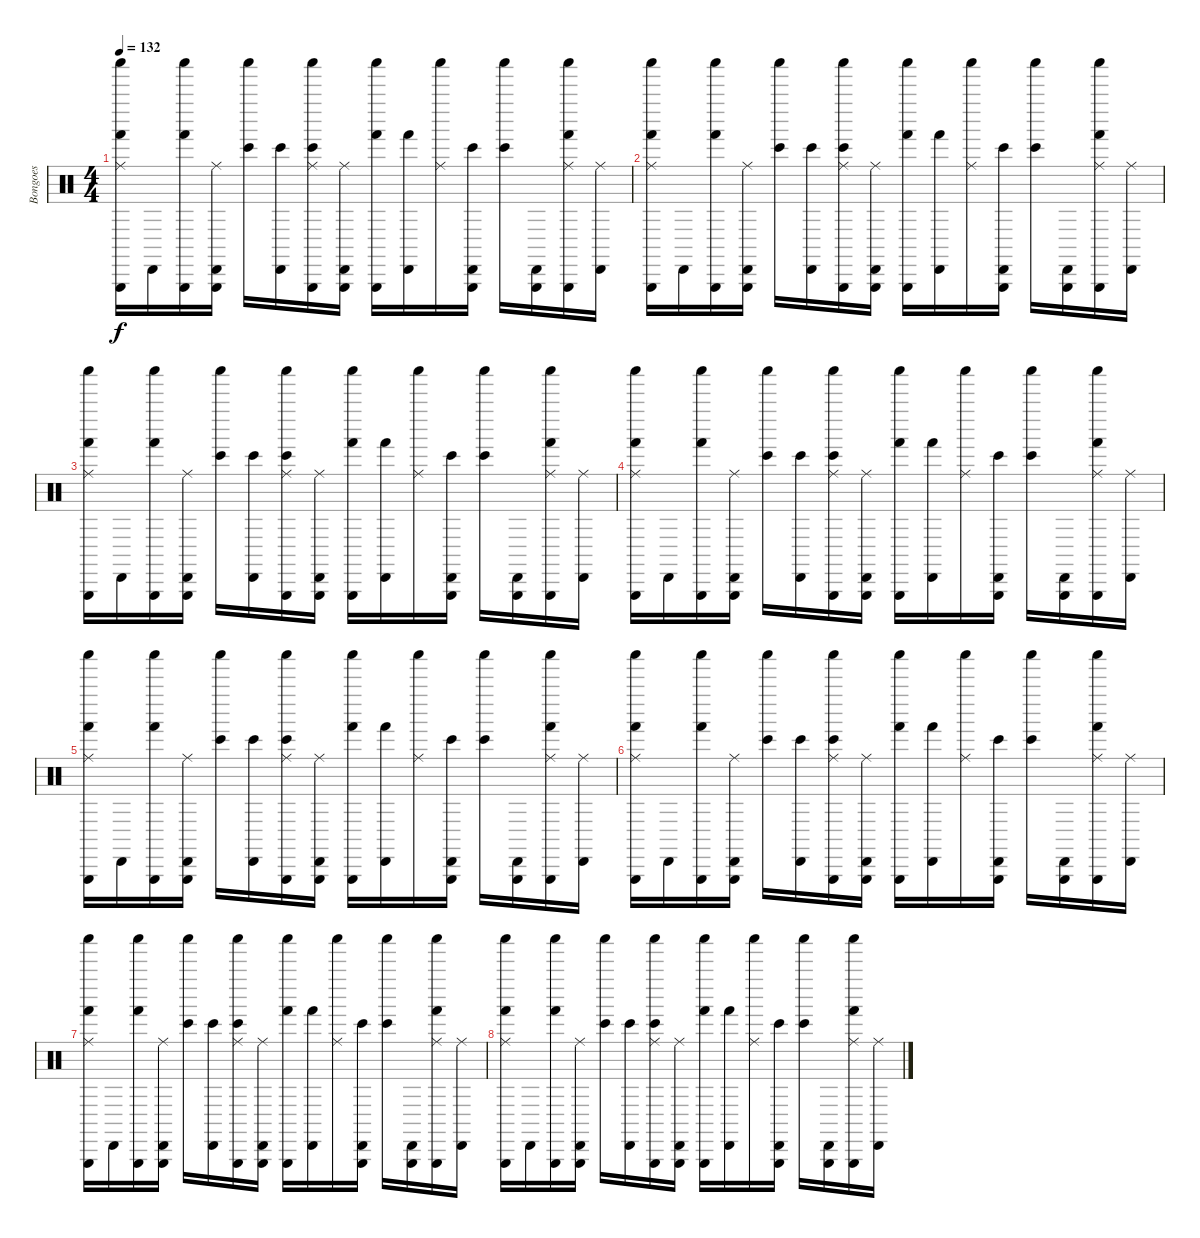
\track ("Bongoes" "Bongoes") {instrument percussion}
\staff {score}
\articulation defaults
\ts (4 4)
\tempo 132
\clef neutral
\ks c
("Shaker (hit)" "Triangle (hit)" "Hand (hit)" "Ride (middle)").16{dy f} "Cabasa (hit)".16 ("Shaker (hit)" "Triangle (hit)" "Hand (hit)").16 ("Cabasa (hit)" "Triangle (hit)" "Ride (middle)").16 ("Shaker (hit)" "Bongo High (hit)").16 ("Cabasa (hit)" "Bongo High (hit)").16 ("Shaker (hit)" "Triangle (hit)" "Bongo High (hit)" "Ride (middle)").16 ("Cabasa (hit)" "Triangle (hit)" "Ride (middle)").16 ("Shaker (hit)" "Triangle (hit)" "Hand (hit)").16 ("Cabasa (hit)" "Hand (hit)").16 ("Shaker (hit)" "Ride (middle)").16 ("Cabasa (hit)" "Triangle (hit)" "Bongo High (hit)").16 ("Shaker (hit)" "Bongo High (hit)").16 ("Cabasa (hit)" "Triangle (hit)").16 ("Shaker (hit)" "Triangle (hit)" "Hand (hit)" "Ride (middle)").16 ("Cabasa (hit)" "Ride (middle)").16 |
("Shaker (hit)" "Triangle (hit)" "Hand (hit)" "Ride (middle)").16 "Cabasa (hit)".16 ("Shaker (hit)" "Triangle (hit)" "Hand (hit)").16 ("Cabasa (hit)" "Triangle (hit)" "Ride (middle)").16 ("Shaker (hit)" "Bongo High (hit)").16 ("Cabasa (hit)" "Bongo High (hit)").16 ("Shaker (hit)" "Triangle (hit)" "Bongo High (hit)" "Ride (middle)").16 ("Cabasa (hit)" "Triangle (hit)" "Ride (middle)").16 ("Shaker (hit)" "Triangle (hit)" "Hand (hit)").16 ("Cabasa (hit)" "Hand (hit)").16 ("Shaker (hit)" "Ride (middle)").16 ("Cabasa (hit)" "Triangle (hit)" "Bongo High (hit)").16 ("Shaker (hit)" "Bongo High (hit)").16 ("Cabasa (hit)" "Triangle (hit)").16 ("Shaker (hit)" "Triangle (hit)" "Hand (hit)" "Ride (middle)").16 ("Cabasa (hit)" "Ride (middle)").16 |
("Shaker (hit)" "Triangle (hit)" "Hand (hit)" "Ride (middle)").16 "Cabasa (hit)".16 ("Shaker (hit)" "Triangle (hit)" "Hand (hit)").16 ("Cabasa (hit)" "Triangle (hit)" "Ride (middle)").16 ("Shaker (hit)" "Bongo High (hit)").16 ("Cabasa (hit)" "Bongo High (hit)").16 ("Shaker (hit)" "Triangle (hit)" "Bongo High (hit)" "Ride (middle)").16 ("Cabasa (hit)" "Triangle (hit)" "Ride (middle)").16 ("Shaker (hit)" "Triangle (hit)" "Hand (hit)").16 ("Cabasa (hit)" "Hand (hit)").16 ("Shaker (hit)" "Ride (middle)").16 ("Cabasa (hit)" "Triangle (hit)" "Bongo High (hit)").16 ("Shaker (hit)" "Bongo High (hit)").16 ("Cabasa (hit)" "Triangle (hit)").16 ("Shaker (hit)" "Triangle (hit)" "Hand (hit)" "Ride (middle)").16 ("Cabasa (hit)" "Ride (middle)").16 |
("Shaker (hit)" "Triangle (hit)" "Hand (hit)" "Ride (middle)").16 "Cabasa (hit)".16 ("Shaker (hit)" "Triangle (hit)" "Hand (hit)").16 ("Cabasa (hit)" "Triangle (hit)" "Ride (middle)").16 ("Shaker (hit)" "Bongo High (hit)").16 ("Cabasa (hit)" "Bongo High (hit)").16 ("Shaker (hit)" "Triangle (hit)" "Bongo High (hit)" "Ride (middle)").16 ("Cabasa (hit)" "Triangle (hit)" "Ride (middle)").16 ("Shaker (hit)" "Triangle (hit)" "Hand (hit)").16 ("Cabasa (hit)" "Hand (hit)").16 ("Shaker (hit)" "Ride (middle)").16 ("Cabasa (hit)" "Triangle (hit)" "Bongo High (hit)").16 ("Shaker (hit)" "Bongo High (hit)").16 ("Cabasa (hit)" "Triangle (hit)").16 ("Shaker (hit)" "Triangle (hit)" "Hand (hit)" "Ride (middle)").16 ("Cabasa (hit)" "Ride (middle)").16 |
("Shaker (hit)" "Triangle (hit)" "Hand (hit)" "Ride (middle)").16 "Cabasa (hit)".16 ("Shaker (hit)" "Triangle (hit)" "Hand (hit)").16 ("Cabasa (hit)" "Triangle (hit)" "Ride (middle)").16 ("Shaker (hit)" "Bongo High (hit)").16 ("Cabasa (hit)" "Bongo High (hit)").16 ("Shaker (hit)" "Triangle (hit)" "Bongo High (hit)" "Ride (middle)").16 ("Cabasa (hit)" "Triangle (hit)" "Ride (middle)").16 ("Shaker (hit)" "Triangle (hit)" "Hand (hit)").16 ("Cabasa (hit)" "Hand (hit)").16 ("Shaker (hit)" "Ride (middle)").16 ("Cabasa (hit)" "Triangle (hit)" "Bongo High (hit)").16 ("Shaker (hit)" "Bongo High (hit)").16 ("Cabasa (hit)" "Triangle (hit)").16 ("Shaker (hit)" "Triangle (hit)" "Hand (hit)" "Ride (middle)").16 ("Cabasa (hit)" "Ride (middle)").16 |
("Shaker (hit)" "Triangle (hit)" "Hand (hit)" "Ride (middle)").16 "Cabasa (hit)".16 ("Shaker (hit)" "Triangle (hit)" "Hand (hit)").16 ("Cabasa (hit)" "Triangle (hit)" "Ride (middle)").16 ("Shaker (hit)" "Bongo High (hit)").16 ("Cabasa (hit)" "Bongo High (hit)").16 ("Shaker (hit)" "Triangle (hit)" "Bongo High (hit)" "Ride (middle)").16 ("Cabasa (hit)" "Triangle (hit)" "Ride (middle)").16 ("Shaker (hit)" "Triangle (hit)" "Hand (hit)").16 ("Cabasa (hit)" "Hand (hit)").16 ("Shaker (hit)" "Ride (middle)").16 ("Cabasa (hit)" "Triangle (hit)" "Bongo High (hit)").16 ("Shaker (hit)" "Bongo High (hit)").16 ("Cabasa (hit)" "Triangle (hit)").16 ("Shaker (hit)" "Triangle (hit)" "Hand (hit)" "Ride (middle)").16 ("Cabasa (hit)" "Ride (middle)").16 |
("Shaker (hit)" "Triangle (hit)" "Hand (hit)" "Ride (middle)").16 "Cabasa (hit)".16 ("Shaker (hit)" "Triangle (hit)" "Hand (hit)").16 ("Cabasa (hit)" "Triangle (hit)" "Ride (middle)").16 ("Shaker (hit)" "Bongo High (hit)").16 ("Cabasa (hit)" "Bongo High (hit)").16 ("Shaker (hit)" "Triangle (hit)" "Bongo High (hit)" "Ride (middle)").16 ("Cabasa (hit)" "Triangle (hit)" "Ride (middle)").16 ("Shaker (hit)" "Triangle (hit)" "Hand (hit)").16 ("Cabasa (hit)" "Hand (hit)").16 ("Shaker (hit)" "Ride (middle)").16 ("Cabasa (hit)" "Triangle (hit)" "Bongo High (hit)").16 ("Shaker (hit)" "Bongo High (hit)").16 ("Cabasa (hit)" "Triangle (hit)").16 ("Shaker (hit)" "Triangle (hit)" "Hand (hit)" "Ride (middle)").16 ("Cabasa (hit)" "Ride (middle)").16 |
("Shaker (hit)" "Triangle (hit)" "Hand (hit)" "Ride (middle)").16 "Cabasa (hit)".16 ("Shaker (hit)" "Triangle (hit)" "Hand (hit)").16 ("Cabasa (hit)" "Triangle (hit)" "Ride (middle)").16 ("Shaker (hit)" "Bongo High (hit)").16 ("Cabasa (hit)" "Bongo High (hit)").16 ("Shaker (hit)" "Triangle (hit)" "Bongo High (hit)" "Ride (middle)").16 ("Cabasa (hit)" "Triangle (hit)" "Ride (middle)").16 ("Shaker (hit)" "Triangle (hit)" "Hand (hit)").16 ("Cabasa (hit)" "Hand (hit)").16 ("Shaker (hit)" "Ride (middle)").16 ("Cabasa (hit)" "Triangle (hit)" "Bongo High (hit)").16 ("Shaker (hit)" "Bongo High (hit)").16 ("Cabasa (hit)" "Triangle (hit)").16 ("Shaker (hit)" "Triangle (hit)" "Hand (hit)" "Ride (middle)").16 ("Cabasa (hit)" "Ride (middle)").16
